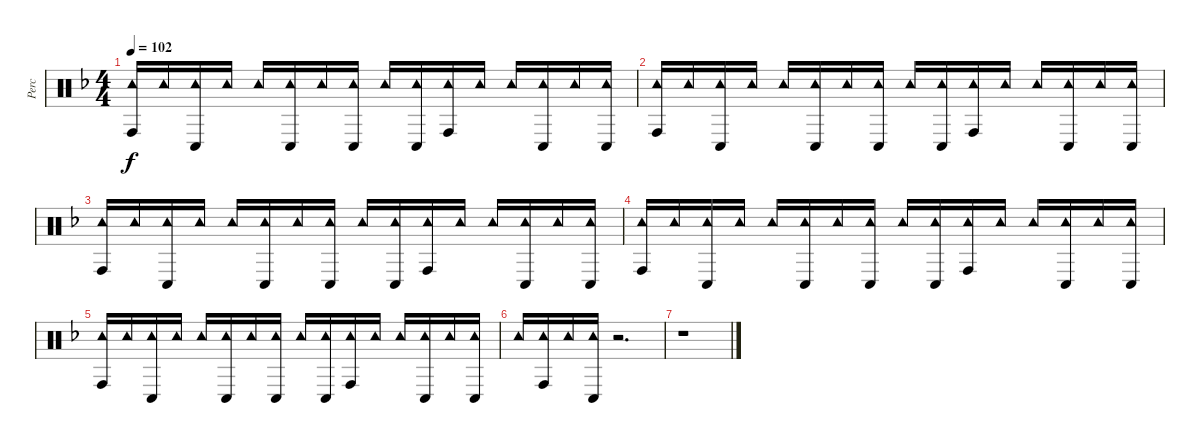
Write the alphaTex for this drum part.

\track ("Perc" "Perc") {instrument percussion}
\staff {score}
\articulation defaults
\ts (4 4)
\tempo 102
\clef neutral
\ks f
("Tambourine (hit)" "Conga high (hit)").16{dy f} "Tambourine (hit)".16 ("Tambourine (hit)" "Conga low (hit)").16 "Tambourine (hit)".16 "Tambourine (hit)".16 ("Tambourine (hit)" "Conga low (hit)").16 "Tambourine (hit)".16 ("Tambourine (hit)" "Conga low (hit)").16 "Tambourine (hit)".16 ("Tambourine (hit)" "Conga low (hit)").16 ("Tambourine (hit)" "Conga high (hit)").16 "Tambourine (hit)".16 "Tambourine (hit)".16 ("Tambourine (hit)" "Conga low (hit)").16 "Tambourine (hit)".16 ("Tambourine (hit)" "Conga low (hit)").16 |
("Tambourine (hit)" "Conga high (hit)").16 "Tambourine (hit)".16 ("Tambourine (hit)" "Conga low (hit)").16 "Tambourine (hit)".16 "Tambourine (hit)".16 ("Tambourine (hit)" "Conga low (hit)").16 "Tambourine (hit)".16 ("Tambourine (hit)" "Conga low (hit)").16 "Tambourine (hit)".16 ("Tambourine (hit)" "Conga low (hit)").16 ("Tambourine (hit)" "Conga high (hit)").16 "Tambourine (hit)".16 "Tambourine (hit)".16 ("Tambourine (hit)" "Conga low (hit)").16 "Tambourine (hit)".16 ("Tambourine (hit)" "Conga low (hit)").16 |
("Tambourine (hit)" "Conga high (hit)").16 "Tambourine (hit)".16 ("Tambourine (hit)" "Conga low (hit)").16 "Tambourine (hit)".16 "Tambourine (hit)".16 ("Tambourine (hit)" "Conga low (hit)").16 "Tambourine (hit)".16 ("Tambourine (hit)" "Conga low (hit)").16 "Tambourine (hit)".16 ("Tambourine (hit)" "Conga low (hit)").16 ("Tambourine (hit)" "Conga high (hit)").16 "Tambourine (hit)".16 "Tambourine (hit)".16 ("Tambourine (hit)" "Conga low (hit)").16 "Tambourine (hit)".16 ("Tambourine (hit)" "Conga low (hit)").16 |
("Tambourine (hit)" "Conga high (hit)").16 "Tambourine (hit)".16 ("Tambourine (hit)" "Conga low (hit)").16 "Tambourine (hit)".16 "Tambourine (hit)".16 ("Tambourine (hit)" "Conga low (hit)").16 "Tambourine (hit)".16 ("Tambourine (hit)" "Conga low (hit)").16 "Tambourine (hit)".16 ("Tambourine (hit)" "Conga low (hit)").16 ("Tambourine (hit)" "Conga high (hit)").16 "Tambourine (hit)".16 "Tambourine (hit)".16 ("Tambourine (hit)" "Conga low (hit)").16 "Tambourine (hit)".16 ("Tambourine (hit)" "Conga low (hit)").16 |
("Tambourine (hit)" "Conga high (hit)").16 "Tambourine (hit)".16 ("Tambourine (hit)" "Conga low (hit)").16 "Tambourine (hit)".16 "Tambourine (hit)".16 ("Tambourine (hit)" "Conga low (hit)").16 "Tambourine (hit)".16 ("Tambourine (hit)" "Conga low (hit)").16 "Tambourine (hit)".16 ("Tambourine (hit)" "Conga low (hit)").16 ("Tambourine (hit)" "Conga high (hit)").16 "Tambourine (hit)".16 "Tambourine (hit)".16 ("Tambourine (hit)" "Conga low (hit)").16 "Tambourine (hit)".16 ("Tambourine (hit)" "Conga low (hit)").16 |
"Tambourine (hit)".16 ("Tambourine (hit)" "Conga high (hit)").16 "Tambourine (hit)".16 ("Tambourine (hit)" "Conga low (hit)").16 r.2{d} |
r.1
